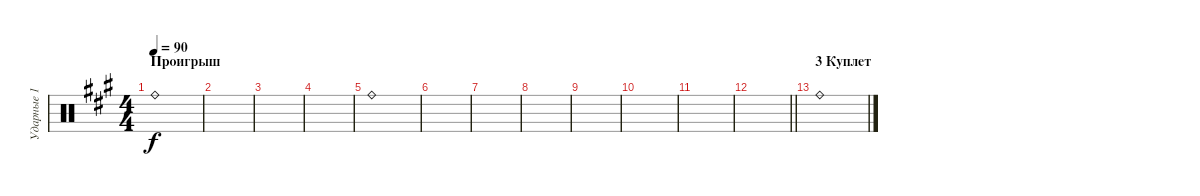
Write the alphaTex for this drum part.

\track ("Ударные 1" "Ударные 1") {instrument percussion}
\staff {score}
\articulation defaults
\ts (4 4)
\section ("" "Проигрыш")
\tempo 90
\clef neutral
\ks f#minor "Ride (bell)".1{dy f}
|
|
|
|
"Ride (bell)".1 |
|
|
|
|
|
|
\barLineRight lightlight
|
\section ("" "3 Куплет")
"Ride (bell)".1
